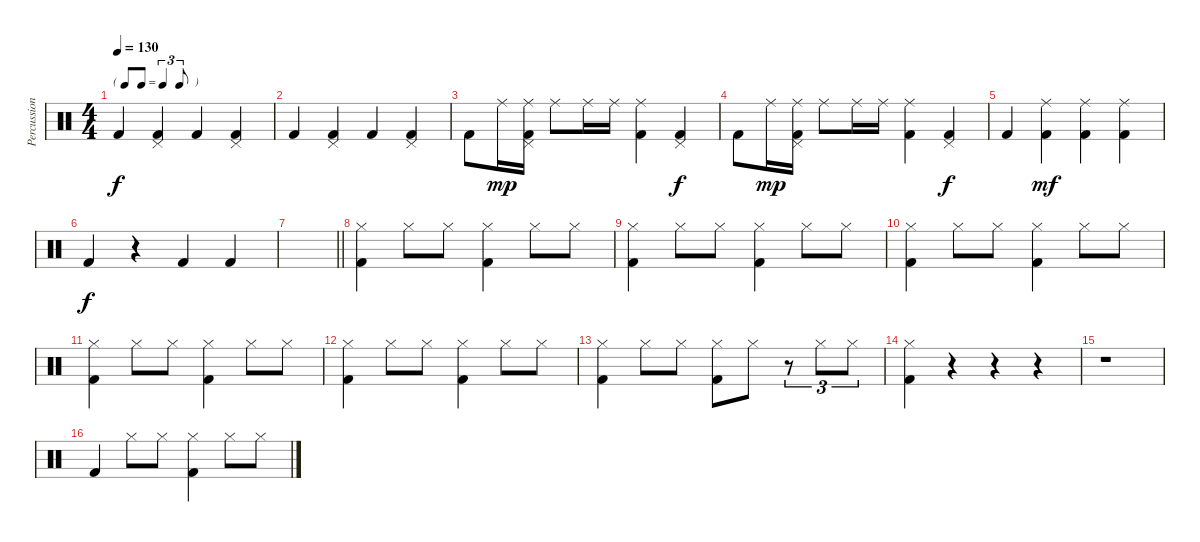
\track ("Percussion" "Percussion") {instrument percussion}
\staff {score}
\articulation defaults
\ts (4 4)
\tf triplet8th
\tempo 130
\clef neutral
\ks c "Kick (hit) 2".4{dy f}
("Pedal Hi-Hat (hit)" "Kick (hit) 2").4 "Kick (hit) 2".4 ("Pedal Hi-Hat (hit)" "Kick (hit) 2").4 |
"Kick (hit) 2".4 ("Pedal Hi-Hat (hit)" "Kick (hit) 2").4 "Kick (hit) 2".4 ("Pedal Hi-Hat (hit)" "Kick (hit) 2").4 |
"Kick (hit) 2".8 "Ride (middle)".16{dy mp} ("Ride (middle)" "Kick (hit) 2" "Pedal Hi-Hat (hit)").16 "Ride (middle)".8 "Ride (middle)".16 "Ride (middle)".16 ("Ride (middle)" "Kick (hit) 2").4 ("Kick (hit) 2" "Pedal Hi-Hat (hit)").4{dy f} |
"Kick (hit) 2".8 "Ride (middle)".16{dy mp} ("Ride (middle)" "Kick (hit) 2" "Pedal Hi-Hat (hit)").16 "Ride (middle)".8 "Ride (middle)".16 "Ride (middle)".16 ("Ride (middle)" "Kick (hit) 2").4 ("Kick (hit) 2" "Pedal Hi-Hat (hit)").4{dy f} |
"Kick (hit) 2".4 ("Ride (middle)" "Kick (hit) 2").4{dy mf} ("Ride (middle)" "Kick (hit) 2").4 ("Ride (middle)" "Kick (hit) 2").4 |
"Kick (hit) 2".4{dy f} r.4 "Kick (hit) 2".4 "Kick (hit) 2".4 |
\barLineRight lightlight
|
("Hi-Hat (closed)" "Kick (hit) 2").4 "Hi-Hat (closed)".8 "Hi-Hat (closed)".8 ("Hi-Hat (closed)" "Kick (hit) 2").4 "Hi-Hat (closed)".8 "Hi-Hat (closed)".8 |
("Hi-Hat (closed)" "Kick (hit) 2").4 "Hi-Hat (closed)".8 "Hi-Hat (closed)".8 ("Hi-Hat (closed)" "Kick (hit) 2").4 "Hi-Hat (closed)".8 "Hi-Hat (closed)".8 |
("Hi-Hat (closed)" "Kick (hit) 2").4 "Hi-Hat (closed)".8 "Hi-Hat (closed)".8 ("Hi-Hat (closed)" "Kick (hit) 2").4 "Hi-Hat (closed)".8 "Hi-Hat (closed)".8 |
("Hi-Hat (closed)" "Kick (hit) 2").4 "Hi-Hat (closed)".8 "Hi-Hat (closed)".8 ("Hi-Hat (closed)" "Kick (hit) 2").4 "Hi-Hat (closed)".8 "Hi-Hat (closed)".8 |
("Hi-Hat (closed)" "Kick (hit) 2").4 "Hi-Hat (closed)".8 "Hi-Hat (closed)".8 ("Hi-Hat (closed)" "Kick (hit) 2").4 "Hi-Hat (closed)".8 "Hi-Hat (closed)".8 |
("Hi-Hat (closed)" "Kick (hit) 2").4 "Hi-Hat (closed)".8 "Hi-Hat (closed)".8 ("Hi-Hat (closed)" "Kick (hit) 2").8 "Hi-Hat (closed)".8 r.8{tu (3 2)} "Hi-Hat (closed)".8{tu (3 2)} "Hi-Hat (closed)".8{tu (3 2)} |
("Hi-Hat (closed)" "Kick (hit) 2").4 r.4 r.4 r.4 |
r.1 |
"Kick (hit) 2".4 "Hi-Hat (closed)".8 "Hi-Hat (closed)".8 ("Hi-Hat (closed)" "Kick (hit) 2").4 "Hi-Hat (closed)".8 "Hi-Hat (closed)".8
